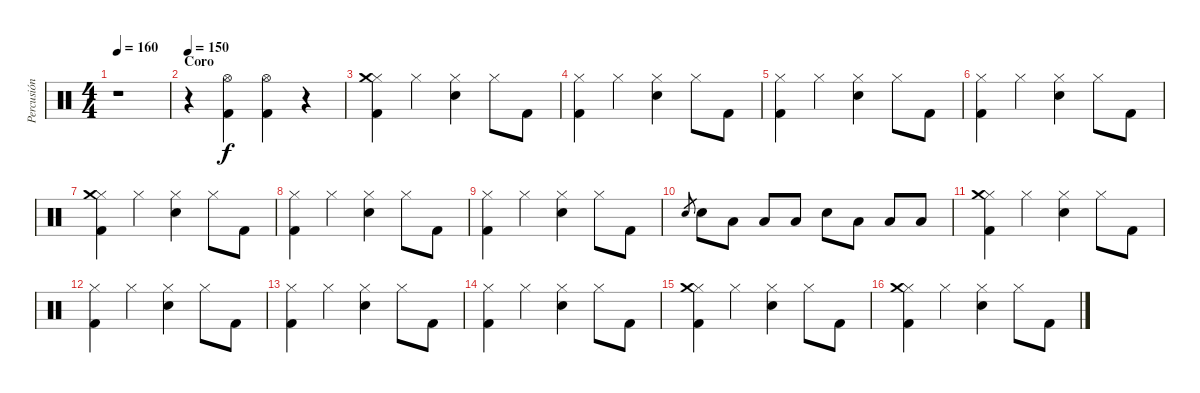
\track ("Percusión" "Percusión") {instrument percussion}
\staff {score}
\articulation defaults
\ts (4 4)
\tempo 160
\clef neutral
\ks c
r.1{dy f} |
\section ("" "Coro")
\tempo 150
r.4 ("Hi-Hat (open)" "Kick (hit) 2").4 ("Hi-Hat (open)" "Kick (hit) 2").4 r.4 |
("Hi-Hat (closed)" "Crash medium (hit)" "Kick (hit) 2").4 "Hi-Hat (closed)".4 ("Hi-Hat (closed)" "Snare (hit) 2").4 "Hi-Hat (closed)".8 "Kick (hit) 2".8 |
("Hi-Hat (closed)" "Kick (hit) 2").4 "Hi-Hat (closed)".4 ("Hi-Hat (closed)" "Snare (hit) 2").4 "Hi-Hat (closed)".8 "Kick (hit) 2".8 |
("Hi-Hat (closed)" "Kick (hit) 2").4 "Hi-Hat (closed)".4 ("Hi-Hat (closed)" "Snare (hit) 2").4 "Hi-Hat (closed)".8 "Kick (hit) 2".8 |
("Hi-Hat (closed)" "Kick (hit) 2").4 "Hi-Hat (closed)".4 ("Hi-Hat (closed)" "Snare (hit) 2").4 "Hi-Hat (closed)".8 "Kick (hit) 2".8 |
("Hi-Hat (closed)" "Crash medium (hit)" "Kick (hit) 2").4 "Hi-Hat (closed)".4 ("Hi-Hat (closed)" "Snare (hit) 2").4 "Hi-Hat (closed)".8 "Kick (hit) 2".8 |
("Hi-Hat (closed)" "Kick (hit) 2").4 "Hi-Hat (closed)".4 ("Hi-Hat (closed)" "Snare (hit) 2").4 "Hi-Hat (closed)".8 "Kick (hit) 2".8 |
("Hi-Hat (closed)" "Kick (hit) 2").4 "Hi-Hat (closed)".4 ("Hi-Hat (closed)" "Snare (hit) 2").4 "Hi-Hat (closed)".8 "Kick (hit) 2".8 |
"Snare (hit) 2".8{gr} "Snare (hit) 2".8 "Low Tom (hit)".8 "Low Tom (hit)".8 "Low Tom (hit)".8 "Snare (hit) 2".8 "Low Tom (hit)".8 "Low Tom (hit)".8 "Low Tom (hit)".8 |
("Hi-Hat (closed)" "Crash medium (hit)" "Kick (hit) 2").4 "Hi-Hat (closed)".4 ("Hi-Hat (closed)" "Snare (hit) 2").4 "Hi-Hat (closed)".8 "Kick (hit) 2".8 |
("Hi-Hat (closed)" "Kick (hit) 2").4 "Hi-Hat (closed)".4 ("Hi-Hat (closed)" "Snare (hit) 2").4 "Hi-Hat (closed)".8 "Kick (hit) 2".8 |
("Hi-Hat (closed)" "Kick (hit) 2").4 "Hi-Hat (closed)".4 ("Hi-Hat (closed)" "Snare (hit) 2").4 "Hi-Hat (closed)".8 "Kick (hit) 2".8 |
("Hi-Hat (closed)" "Kick (hit) 2").4 "Hi-Hat (closed)".4 ("Hi-Hat (closed)" "Snare (hit) 2").4 "Hi-Hat (closed)".8 "Kick (hit) 2".8 |
("Hi-Hat (closed)" "Crash medium (hit)" "Kick (hit) 2").4 "Hi-Hat (closed)".4 ("Hi-Hat (closed)" "Snare (hit) 2").4 "Hi-Hat (closed)".8 "Kick (hit) 2".8 |
("Hi-Hat (closed)" "Crash medium (hit)" "Kick (hit) 2").4 "Hi-Hat (closed)".4 ("Hi-Hat (closed)" "Snare (hit) 2").4 "Hi-Hat (closed)".8 "Kick (hit) 2".8
